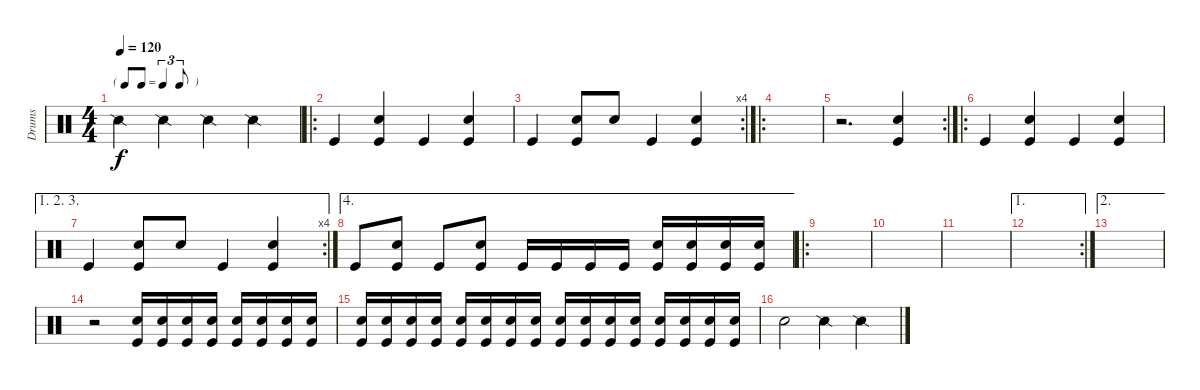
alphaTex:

\track ("Drums" "Drums") {instrument percussion}
\staff {score}
\articulation defaults
\ts (4 4)
\tf triplet8th
\tempo 120
\clef neutral
\ks c "Snare (side stick) 2".4{dy f} "Snare (side stick) 2".4 "Snare (side stick) 2".4 "Snare (side stick) 2".4
|
\ro "Kick (hit)".4
("Kick (hit)" "Snare (hit) 2").4 "Kick (hit)".4 ("Kick (hit)" "Snare (hit) 2").4 |
\rc 4 "Kick (hit)".4
("Kick (hit)" "Snare (hit) 2").8 "Snare (hit) 2".8 "Kick (hit)".4 ("Kick (hit)" "Snare (hit) 2").4 |
\ro
|
\rc 2
r.2{d} ("Kick (hit)" "Snare (hit) 2").4 |
\ro "Kick (hit)".4
("Kick (hit)" "Snare (hit) 2").4 "Kick (hit)".4 ("Kick (hit)" "Snare (hit) 2").4 |
\ae (1 2 3)
\rc 4 "Kick (hit)".4
("Kick (hit)" "Snare (hit) 2").8 "Snare (hit) 2".8 "Kick (hit)".4 ("Kick (hit)" "Snare (hit) 2").4 |
\ae 4 "Kick (hit)".8
("Kick (hit)" "Snare (hit) 2").8 "Kick (hit)".8 ("Kick (hit)" "Snare (hit) 2").8 "Kick (hit)".16 "Kick (hit)".16 "Kick (hit)".16 "Kick (hit)".16 ("Kick (hit)" "Snare (hit) 2").16 ("Kick (hit)" "Snare (hit) 2").16 ("Kick (hit)" "Snare (hit) 2").16 ("Kick (hit)" "Snare (hit) 2").16 |
\ro
|
|
|
\ae 1
\rc 2
|
\ae 2
|
r.2 ("Kick (hit)" "Snare (hit) 2").16 ("Kick (hit)" "Snare (hit) 2").16 ("Kick (hit)" "Snare (hit) 2").16 ("Kick (hit)" "Snare (hit) 2").16 ("Kick (hit)" "Snare (hit) 2").16 ("Kick (hit)" "Snare (hit) 2").16 ("Kick (hit)" "Snare (hit) 2").16 ("Kick (hit)" "Snare (hit) 2").16 |
("Kick (hit)" "Snare (hit) 2").16 ("Kick (hit)" "Snare (hit) 2").16 ("Kick (hit)" "Snare (hit) 2").16 ("Kick (hit)" "Snare (hit) 2").16 ("Kick (hit)" "Snare (hit) 2").16 ("Kick (hit)" "Snare (hit) 2").16 ("Kick (hit)" "Snare (hit) 2").16 ("Kick (hit)" "Snare (hit) 2").16 ("Kick (hit)" "Snare (hit) 2").16 ("Kick (hit)" "Snare (hit) 2").16 ("Kick (hit)" "Snare (hit) 2").16 ("Kick (hit)" "Snare (hit) 2").16 ("Kick (hit)" "Snare (hit) 2").16 ("Kick (hit)" "Snare (hit) 2").16 ("Kick (hit)" "Snare (hit) 2").16 ("Kick (hit)" "Snare (hit) 2").16 |
"Snare (hit) 2".2 "Snare (side stick) 2".4 "Snare (side stick) 2".4
